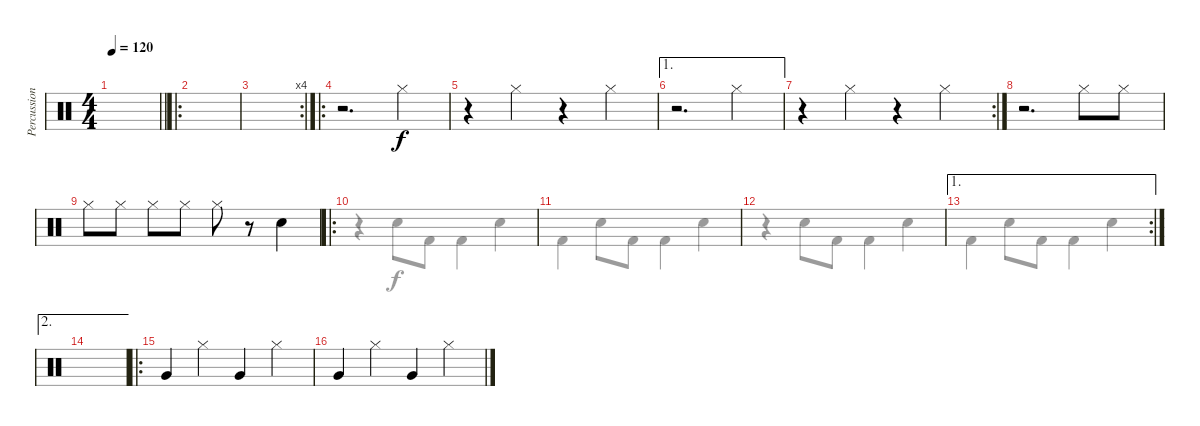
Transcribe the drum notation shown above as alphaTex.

\track ("Percussions 1" "Percussion") {instrument percussion}
\staff {score}
\articulation defaults
\voice
\ts (4 4)
\tempo 120
\clef neutral
\barLineRight lightlight
\ks c
|
\ro
|
\rc 4
|
\ro
r.2{d} "Hi-Hat (closed)".4 |
r.4 "Hi-Hat (closed)".4 r.4 "Hi-Hat (closed)".4 |
\ae 1
r.2{d} "Hi-Hat (closed)".4 |
\rc 2
r.4 "Hi-Hat (closed)".4 r.4 "Hi-Hat (closed)".4 |
r.2{d} "Hi-Hat (closed)".8 "Hi-Hat (closed)".8 |
"Hi-Hat (closed)".8 "Hi-Hat (closed)".8 "Hi-Hat (closed)".8 "Hi-Hat (closed)".8 "Hi-Hat (closed)".8 r.8 "Snare (hit) 2".4 |
\ro
|
|
|
\ae 1
\rc 2
|
\ae 2
|
\ro "Very Low Tom (hit)".4 "Hi-Hat (closed)".4 "Very Low Tom (hit)".4 "Hi-Hat (closed)".4
|
"Very Low Tom (hit)".4 "Hi-Hat (closed)".4 "Very Low Tom (hit)".4 "Hi-Hat (closed)".4
\voice
\clef neutral
\ottava regular
\simile none
\barLineRight lightlight
\ks c
|
|
|
|
|
|
|
|
|
r.4 "Snare (hit) 2".8 "Kick (hit) 2".8 "Kick (hit) 2".4 "Snare (hit) 2".4 |
"Kick (hit) 2".4 "Snare (hit) 2".8 "Kick (hit) 2".8 "Kick (hit) 2".4 "Snare (hit) 2".4 |
r.4 "Snare (hit) 2".8 "Kick (hit) 2".8 "Kick (hit) 2".4 "Snare (hit) 2".4 |
"Kick (hit) 2".4 "Snare (hit) 2".8 "Kick (hit) 2".8 "Kick (hit) 2".4 "Snare (hit) 2".4 |
|
|
